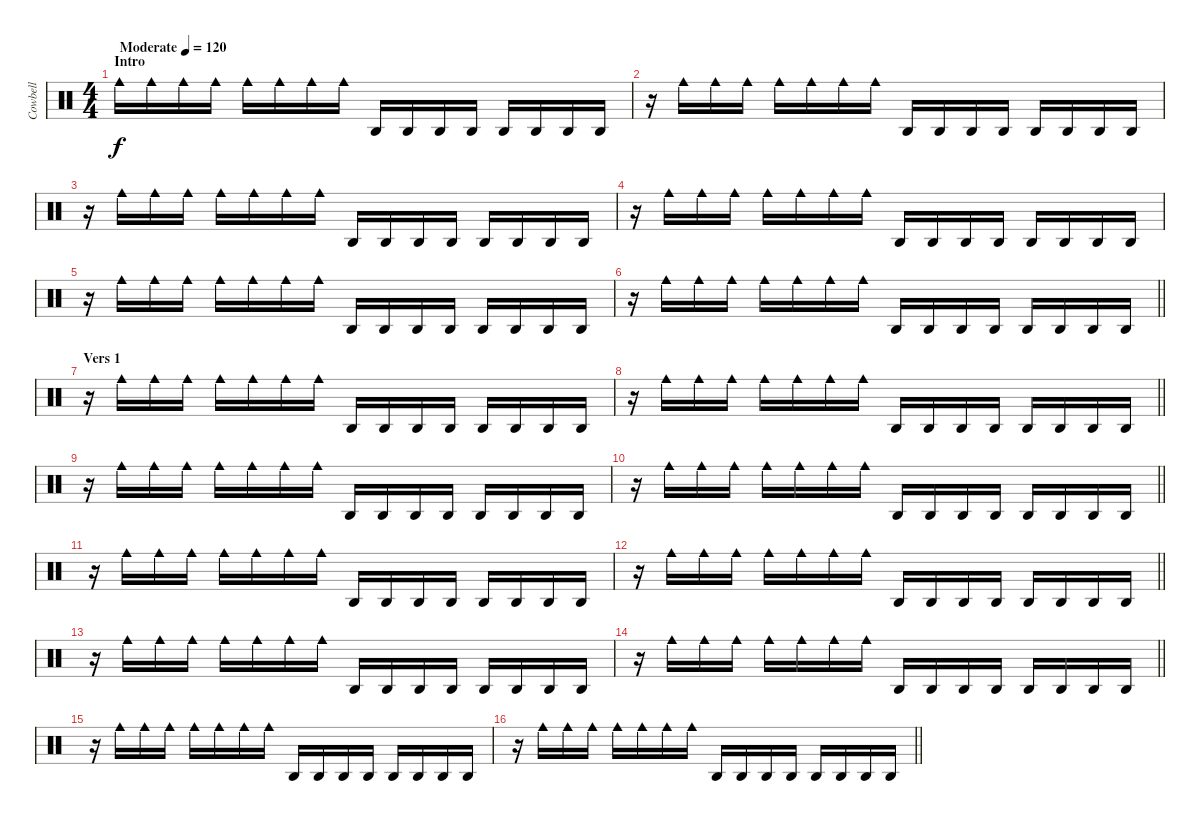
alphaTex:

\track ("Cowbell" "Cowbell") {instrument percussion}
\staff {score}
\articulation defaults
\ts (4 4)
\section ("" "Intro")
\tempo (120 "Moderate")
\clef neutral
\ks c "Cowbell medium (hit)".16{dy f} "Cowbell medium (hit)".16 "Cowbell medium (hit)".16 "Cowbell medium (hit)".16 "Cowbell medium (hit)".16 "Cowbell medium (hit)".16 "Cowbell medium (hit)".16 "Cowbell medium (hit)".16 "Agogo high (hit)".16 "Agogo high (hit)".16 "Agogo high (hit)".16 "Agogo high (hit)".16 "Agogo high (hit)".16 "Agogo high (hit)".16 "Agogo high (hit)".16 "Agogo high (hit)".16
|
r.16 "Cowbell medium (hit)".16 "Cowbell medium (hit)".16 "Cowbell medium (hit)".16 "Cowbell medium (hit)".16 "Cowbell medium (hit)".16 "Cowbell medium (hit)".16 "Cowbell medium (hit)".16 "Agogo high (hit)".16 "Agogo high (hit)".16 "Agogo high (hit)".16 "Agogo high (hit)".16 "Agogo high (hit)".16 "Agogo high (hit)".16 "Agogo high (hit)".16 "Agogo high (hit)".16 |
r.16 "Cowbell medium (hit)".16 "Cowbell medium (hit)".16 "Cowbell medium (hit)".16 "Cowbell medium (hit)".16 "Cowbell medium (hit)".16 "Cowbell medium (hit)".16 "Cowbell medium (hit)".16 "Agogo high (hit)".16 "Agogo high (hit)".16 "Agogo high (hit)".16 "Agogo high (hit)".16 "Agogo high (hit)".16 "Agogo high (hit)".16 "Agogo high (hit)".16 "Agogo high (hit)".16 |
r.16 "Cowbell medium (hit)".16 "Cowbell medium (hit)".16 "Cowbell medium (hit)".16 "Cowbell medium (hit)".16 "Cowbell medium (hit)".16 "Cowbell medium (hit)".16 "Cowbell medium (hit)".16 "Agogo high (hit)".16 "Agogo high (hit)".16 "Agogo high (hit)".16 "Agogo high (hit)".16 "Agogo high (hit)".16 "Agogo high (hit)".16 "Agogo high (hit)".16 "Agogo high (hit)".16 |
r.16 "Cowbell medium (hit)".16 "Cowbell medium (hit)".16 "Cowbell medium (hit)".16 "Cowbell medium (hit)".16 "Cowbell medium (hit)".16 "Cowbell medium (hit)".16 "Cowbell medium (hit)".16 "Agogo high (hit)".16 "Agogo high (hit)".16 "Agogo high (hit)".16 "Agogo high (hit)".16 "Agogo high (hit)".16 "Agogo high (hit)".16 "Agogo high (hit)".16 "Agogo high (hit)".16 |
\barLineRight lightlight
r.16 "Cowbell medium (hit)".16 "Cowbell medium (hit)".16 "Cowbell medium (hit)".16 "Cowbell medium (hit)".16 "Cowbell medium (hit)".16 "Cowbell medium (hit)".16 "Cowbell medium (hit)".16 "Agogo high (hit)".16 "Agogo high (hit)".16 "Agogo high (hit)".16 "Agogo high (hit)".16 "Agogo high (hit)".16 "Agogo high (hit)".16 "Agogo high (hit)".16 "Agogo high (hit)".16 |
\section ("" "Vers 1")
r.16 "Cowbell medium (hit)".16 "Cowbell medium (hit)".16 "Cowbell medium (hit)".16 "Cowbell medium (hit)".16 "Cowbell medium (hit)".16 "Cowbell medium (hit)".16 "Cowbell medium (hit)".16 "Agogo high (hit)".16 "Agogo high (hit)".16 "Agogo high (hit)".16 "Agogo high (hit)".16 "Agogo high (hit)".16 "Agogo high (hit)".16 "Agogo high (hit)".16 "Agogo high (hit)".16 |
\barLineRight lightlight
r.16 "Cowbell medium (hit)".16 "Cowbell medium (hit)".16 "Cowbell medium (hit)".16 "Cowbell medium (hit)".16 "Cowbell medium (hit)".16 "Cowbell medium (hit)".16 "Cowbell medium (hit)".16 "Agogo high (hit)".16 "Agogo high (hit)".16 "Agogo high (hit)".16 "Agogo high (hit)".16 "Agogo high (hit)".16 "Agogo high (hit)".16 "Agogo high (hit)".16 "Agogo high (hit)".16 |
r.16 "Cowbell medium (hit)".16 "Cowbell medium (hit)".16 "Cowbell medium (hit)".16 "Cowbell medium (hit)".16 "Cowbell medium (hit)".16 "Cowbell medium (hit)".16 "Cowbell medium (hit)".16 "Agogo high (hit)".16 "Agogo high (hit)".16 "Agogo high (hit)".16 "Agogo high (hit)".16 "Agogo high (hit)".16 "Agogo high (hit)".16 "Agogo high (hit)".16 "Agogo high (hit)".16 |
\barLineRight lightlight
r.16 "Cowbell medium (hit)".16 "Cowbell medium (hit)".16 "Cowbell medium (hit)".16 "Cowbell medium (hit)".16 "Cowbell medium (hit)".16 "Cowbell medium (hit)".16 "Cowbell medium (hit)".16 "Agogo high (hit)".16 "Agogo high (hit)".16 "Agogo high (hit)".16 "Agogo high (hit)".16 "Agogo high (hit)".16 "Agogo high (hit)".16 "Agogo high (hit)".16 "Agogo high (hit)".16 |
r.16 "Cowbell medium (hit)".16 "Cowbell medium (hit)".16 "Cowbell medium (hit)".16 "Cowbell medium (hit)".16 "Cowbell medium (hit)".16 "Cowbell medium (hit)".16 "Cowbell medium (hit)".16 "Agogo high (hit)".16 "Agogo high (hit)".16 "Agogo high (hit)".16 "Agogo high (hit)".16 "Agogo high (hit)".16 "Agogo high (hit)".16 "Agogo high (hit)".16 "Agogo high (hit)".16 |
\barLineRight lightlight
r.16 "Cowbell medium (hit)".16 "Cowbell medium (hit)".16 "Cowbell medium (hit)".16 "Cowbell medium (hit)".16 "Cowbell medium (hit)".16 "Cowbell medium (hit)".16 "Cowbell medium (hit)".16 "Agogo high (hit)".16 "Agogo high (hit)".16 "Agogo high (hit)".16 "Agogo high (hit)".16 "Agogo high (hit)".16 "Agogo high (hit)".16 "Agogo high (hit)".16 "Agogo high (hit)".16 |
r.16 "Cowbell medium (hit)".16 "Cowbell medium (hit)".16 "Cowbell medium (hit)".16 "Cowbell medium (hit)".16 "Cowbell medium (hit)".16 "Cowbell medium (hit)".16 "Cowbell medium (hit)".16 "Agogo high (hit)".16 "Agogo high (hit)".16 "Agogo high (hit)".16 "Agogo high (hit)".16 "Agogo high (hit)".16 "Agogo high (hit)".16 "Agogo high (hit)".16 "Agogo high (hit)".16 |
\barLineRight lightlight
r.16 "Cowbell medium (hit)".16 "Cowbell medium (hit)".16 "Cowbell medium (hit)".16 "Cowbell medium (hit)".16 "Cowbell medium (hit)".16 "Cowbell medium (hit)".16 "Cowbell medium (hit)".16 "Agogo high (hit)".16 "Agogo high (hit)".16 "Agogo high (hit)".16 "Agogo high (hit)".16 "Agogo high (hit)".16 "Agogo high (hit)".16 "Agogo high (hit)".16 "Agogo high (hit)".16 |
r.16 "Cowbell medium (hit)".16 "Cowbell medium (hit)".16 "Cowbell medium (hit)".16 "Cowbell medium (hit)".16 "Cowbell medium (hit)".16 "Cowbell medium (hit)".16 "Cowbell medium (hit)".16 "Agogo high (hit)".16 "Agogo high (hit)".16 "Agogo high (hit)".16 "Agogo high (hit)".16 "Agogo high (hit)".16 "Agogo high (hit)".16 "Agogo high (hit)".16 "Agogo high (hit)".16 |
\barLineRight lightlight
r.16 "Cowbell medium (hit)".16 "Cowbell medium (hit)".16 "Cowbell medium (hit)".16 "Cowbell medium (hit)".16 "Cowbell medium (hit)".16 "Cowbell medium (hit)".16 "Cowbell medium (hit)".16 "Agogo high (hit)".16 "Agogo high (hit)".16 "Agogo high (hit)".16 "Agogo high (hit)".16 "Agogo high (hit)".16 "Agogo high (hit)".16 "Agogo high (hit)".16 "Agogo high (hit)".16
